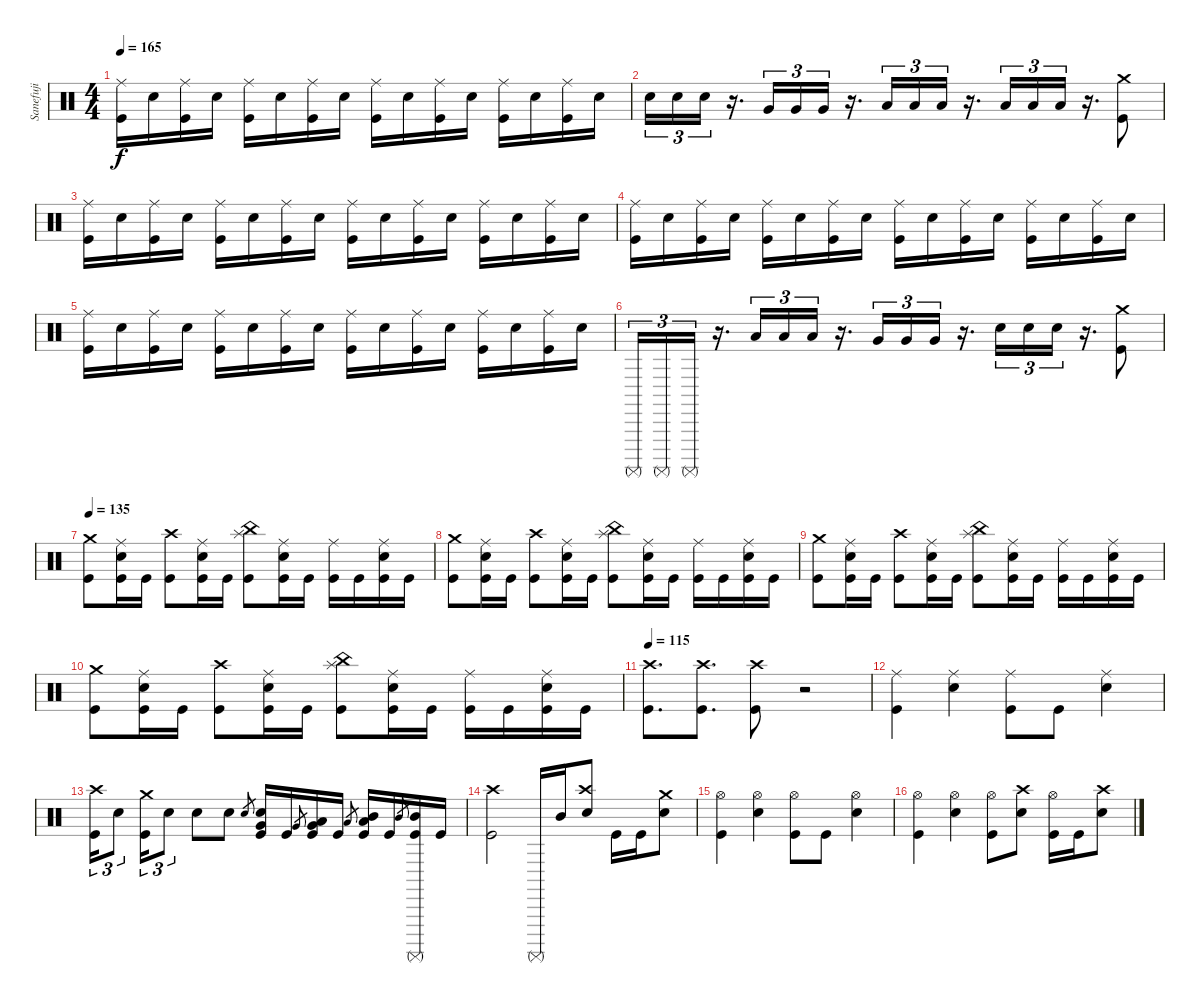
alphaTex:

\track ("Sanefuji" "Sanefuji") {instrument percussion}
\staff {score}
\articulation defaults
\ts (4 4)
\tempo 165
\clef neutral
\ks c
("Ride (middle)" "Kick (hit)").16{dy f} "Electric Snare (hit)".16 ("Ride (middle)" "Kick (hit)").16 "Electric Snare (hit)".16 ("Ride (middle)" "Kick (hit)").16 "Electric Snare (hit)".16 ("Ride (middle)" "Kick (hit)").16 "Electric Snare (hit)".16 ("Ride (middle)" "Kick (hit)").16 "Electric Snare (hit)".16 ("Ride (middle)" "Kick (hit)").16 "Electric Snare (hit)".16 ("Ride (middle)" "Kick (hit)").16 "Electric Snare (hit)".16 ("Ride (middle)" "Kick (hit)").16 "Electric Snare (hit)".16 |
"Electric Snare (hit)".16{tu (3 2)} "Electric Snare (hit)".16{tu (3 2)} "Electric Snare (hit)".16{tu (3 2)} r.16{d} "Very Low Tom (hit)".16{tu (3 2)} "Very Low Tom (hit)".16{tu (3 2)} "Very Low Tom (hit)".16{tu (3 2)} r.16{d} "Low Tom (hit)".16{tu (3 2)} "Low Tom (hit)".16{tu (3 2)} "Low Tom (hit)".16{tu (3 2)} r.16{d} "Low Tom (hit)".16{tu (3 2)} "Low Tom (hit)".16{tu (3 2)} "Low Tom (hit)".16{tu (3 2)} r.16{d} ("Crash medium (hit)" "Kick (hit)").8 |
("Ride (middle)" "Kick (hit)").16 "Electric Snare (hit)".16 ("Ride (middle)" "Kick (hit)").16 "Electric Snare (hit)".16 ("Ride (middle)" "Kick (hit)").16 "Electric Snare (hit)".16 ("Ride (middle)" "Kick (hit)").16 "Electric Snare (hit)".16 ("Ride (middle)" "Kick (hit)").16 "Electric Snare (hit)".16 ("Ride (middle)" "Kick (hit)").16 "Electric Snare (hit)".16 ("Ride (middle)" "Kick (hit)").16 "Electric Snare (hit)".16 ("Ride (middle)" "Kick (hit)").16 "Electric Snare (hit)".16 |
("Ride (middle)" "Kick (hit)").16 "Electric Snare (hit)".16 ("Ride (middle)" "Kick (hit)").16 "Electric Snare (hit)".16 ("Ride (middle)" "Kick (hit)").16 "Electric Snare (hit)".16 ("Ride (middle)" "Kick (hit)").16 "Electric Snare (hit)".16 ("Ride (middle)" "Kick (hit)").16 "Electric Snare (hit)".16 ("Ride (middle)" "Kick (hit)").16 "Electric Snare (hit)".16 ("Ride (middle)" "Kick (hit)").16 "Electric Snare (hit)".16 ("Ride (middle)" "Kick (hit)").16 "Electric Snare (hit)".16 |
("Ride (middle)" "Kick (hit)").16 "Electric Snare (hit)".16 ("Ride (middle)" "Kick (hit)").16 "Electric Snare (hit)".16 ("Ride (middle)" "Kick (hit)").16 "Electric Snare (hit)".16 ("Ride (middle)" "Kick (hit)").16 "Electric Snare (hit)".16 ("Ride (middle)" "Kick (hit)").16 "Electric Snare (hit)".16 ("Ride (middle)" "Kick (hit)").16 "Electric Snare (hit)".16 ("Ride (middle)" "Kick (hit)").16 "Electric Snare (hit)".16 ("Ride (middle)" "Kick (hit)").16 "Electric Snare (hit)".16 |
"Surdo (mute)".16{tu (3 2)} "Surdo (mute)".16{tu (3 2)} "Surdo (mute)".16{tu (3 2)} r.16{d} "Low Tom (hit)".16{tu (3 2)} "Low Tom (hit)".16{tu (3 2)} "Low Tom (hit)".16{tu (3 2)} r.16{d} "Very Low Tom (hit)".16{tu (3 2)} "Very Low Tom (hit)".16{tu (3 2)} "Very Low Tom (hit)".16{tu (3 2)} r.16{d} "Electric Snare (hit)".16{tu (3 2)} "Electric Snare (hit)".16{tu (3 2)} "Electric Snare (hit)".16{tu (3 2)} r.16{d} ("Crash medium (hit)" "Kick (hit)").8 |
\tempo 135
("Crash medium (hit)" "Kick (hit)").8 ("Ride (middle)" "Electric Snare (hit)" "Kick (hit)").16 "Kick (hit)".16 ("Crash high (hit)" "Kick (hit)").8 ("Ride (middle)" "Electric Snare (hit)" "Kick (hit)").16 "Kick (hit)".16 ("Splash (hit)" "China (hit)" "Kick (hit)").8 ("Ride (middle)" "Electric Snare (hit)" "Kick (hit)").16 "Kick (hit)".16 ("Ride (middle)" "Kick (hit)").16 "Kick (hit)".16 ("Ride (middle)" "Electric Snare (hit)" "Kick (hit)").16 "Kick (hit)".16 |
("Crash medium (hit)" "Kick (hit)").8 ("Ride (middle)" "Electric Snare (hit)" "Kick (hit)").16 "Kick (hit)".16 ("Crash high (hit)" "Kick (hit)").8 ("Ride (middle)" "Electric Snare (hit)" "Kick (hit)").16 "Kick (hit)".16 ("Splash (hit)" "China (hit)" "Kick (hit)").8 ("Ride (middle)" "Electric Snare (hit)" "Kick (hit)").16 "Kick (hit)".16 ("Ride (middle)" "Kick (hit)").16 "Kick (hit)".16 ("Ride (middle)" "Electric Snare (hit)" "Kick (hit)").16 "Kick (hit)".16 |
("Crash medium (hit)" "Kick (hit)").8 ("Ride (middle)" "Electric Snare (hit)" "Kick (hit)").16 "Kick (hit)".16 ("Crash high (hit)" "Kick (hit)").8 ("Ride (middle)" "Electric Snare (hit)" "Kick (hit)").16 "Kick (hit)".16 ("Splash (hit)" "China (hit)" "Kick (hit)").8 ("Ride (middle)" "Electric Snare (hit)" "Kick (hit)").16 "Kick (hit)".16 ("Ride (middle)" "Kick (hit)").16 "Kick (hit)".16 ("Ride (middle)" "Electric Snare (hit)" "Kick (hit)").16 "Kick (hit)".16 |
("Crash medium (hit)" "Kick (hit)").8 ("Ride (middle)" "Electric Snare (hit)" "Kick (hit)").16 "Kick (hit)".16 ("Crash high (hit)" "Kick (hit)").8 ("Ride (middle)" "Electric Snare (hit)" "Kick (hit)").16 "Kick (hit)".16 ("Splash (hit)" "China (hit)" "Kick (hit)").8 ("Ride (middle)" "Electric Snare (hit)" "Kick (hit)").16 "Kick (hit)".16 ("Ride (middle)" "Kick (hit)").16 "Kick (hit)".16 ("Ride (middle)" "Electric Snare (hit)" "Kick (hit)").16 "Kick (hit)".16 |
\tempo 115
("Crash high (hit)" "Kick (hit)").8{d} ("Crash high (hit)" "Kick (hit)").8{d} ("Crash high (hit)" "Kick (hit)").8 r.2 |
("Ride (middle)" "Kick (hit)").4 ("Ride (middle)" "Electric Snare (hit)").4 ("Ride (middle)" "Kick (hit)").8 "Kick (hit)".8 ("Ride (middle)" "Electric Snare (hit)").4 |
("Crash high (hit)" "Kick (hit)").16{tu (3 2)} "Electric Snare (hit)".8{tu (3 2)} ("Crash medium (hit)" "Kick (hit)").16{tu (3 2)} "Electric Snare (hit)".8{tu (3 2)} "Electric Snare (hit)".8 "Electric Snare (hit)".8 "Electric Snare (hit)".8{gr} ("Very Low Tom (hit)" "Electric Snare (hit)" "Kick (hit)").16 "Kick (hit)".16 "Very Low Tom (hit)".8{gr} ("Low Tom (hit)" "Very Low Tom (hit)" "Kick (hit)").16 "Kick (hit)".16 "Low Tom (hit)".8{gr} ("Mid Tom (hit)" "Low Tom (hit)" "Kick (hit)").16 "Kick (hit)".16 "Mid Tom (hit)".8{gr} ("Surdo (mute)" "Mid Tom (hit)" "Kick (hit)").16 "Kick (hit)".16 |
("Crash high (hit)" "Kick (hit)").2 "Surdo (mute)".16 "Mid Tom (hit)".16 ("Crash high (hit)" "Electric Snare (hit)").8 "Kick (hit)".16 "Kick (hit)".16 ("Crash medium (hit)" "Electric Snare (hit)").8 |
("Hi-Hat (open)" "Kick (hit)").4 ("Hi-Hat (open)" "Electric Snare (hit)").4 ("Hi-Hat (open)" "Kick (hit)").8 "Kick (hit)".8 ("Hi-Hat (open)" "Electric Snare (hit)").4 |
("Hi-Hat (open)" "Kick (hit)").4 ("Hi-Hat (open)" "Electric Snare (hit)").4 ("Hi-Hat (open)" "Kick (hit)").8 ("Crash high (hit)" "Electric Snare (hit)").8 ("Hi-Hat (open)" "Kick (hit)").16 "Kick (hit)".16 ("Crash high (hit)" "Electric Snare (hit)").8
